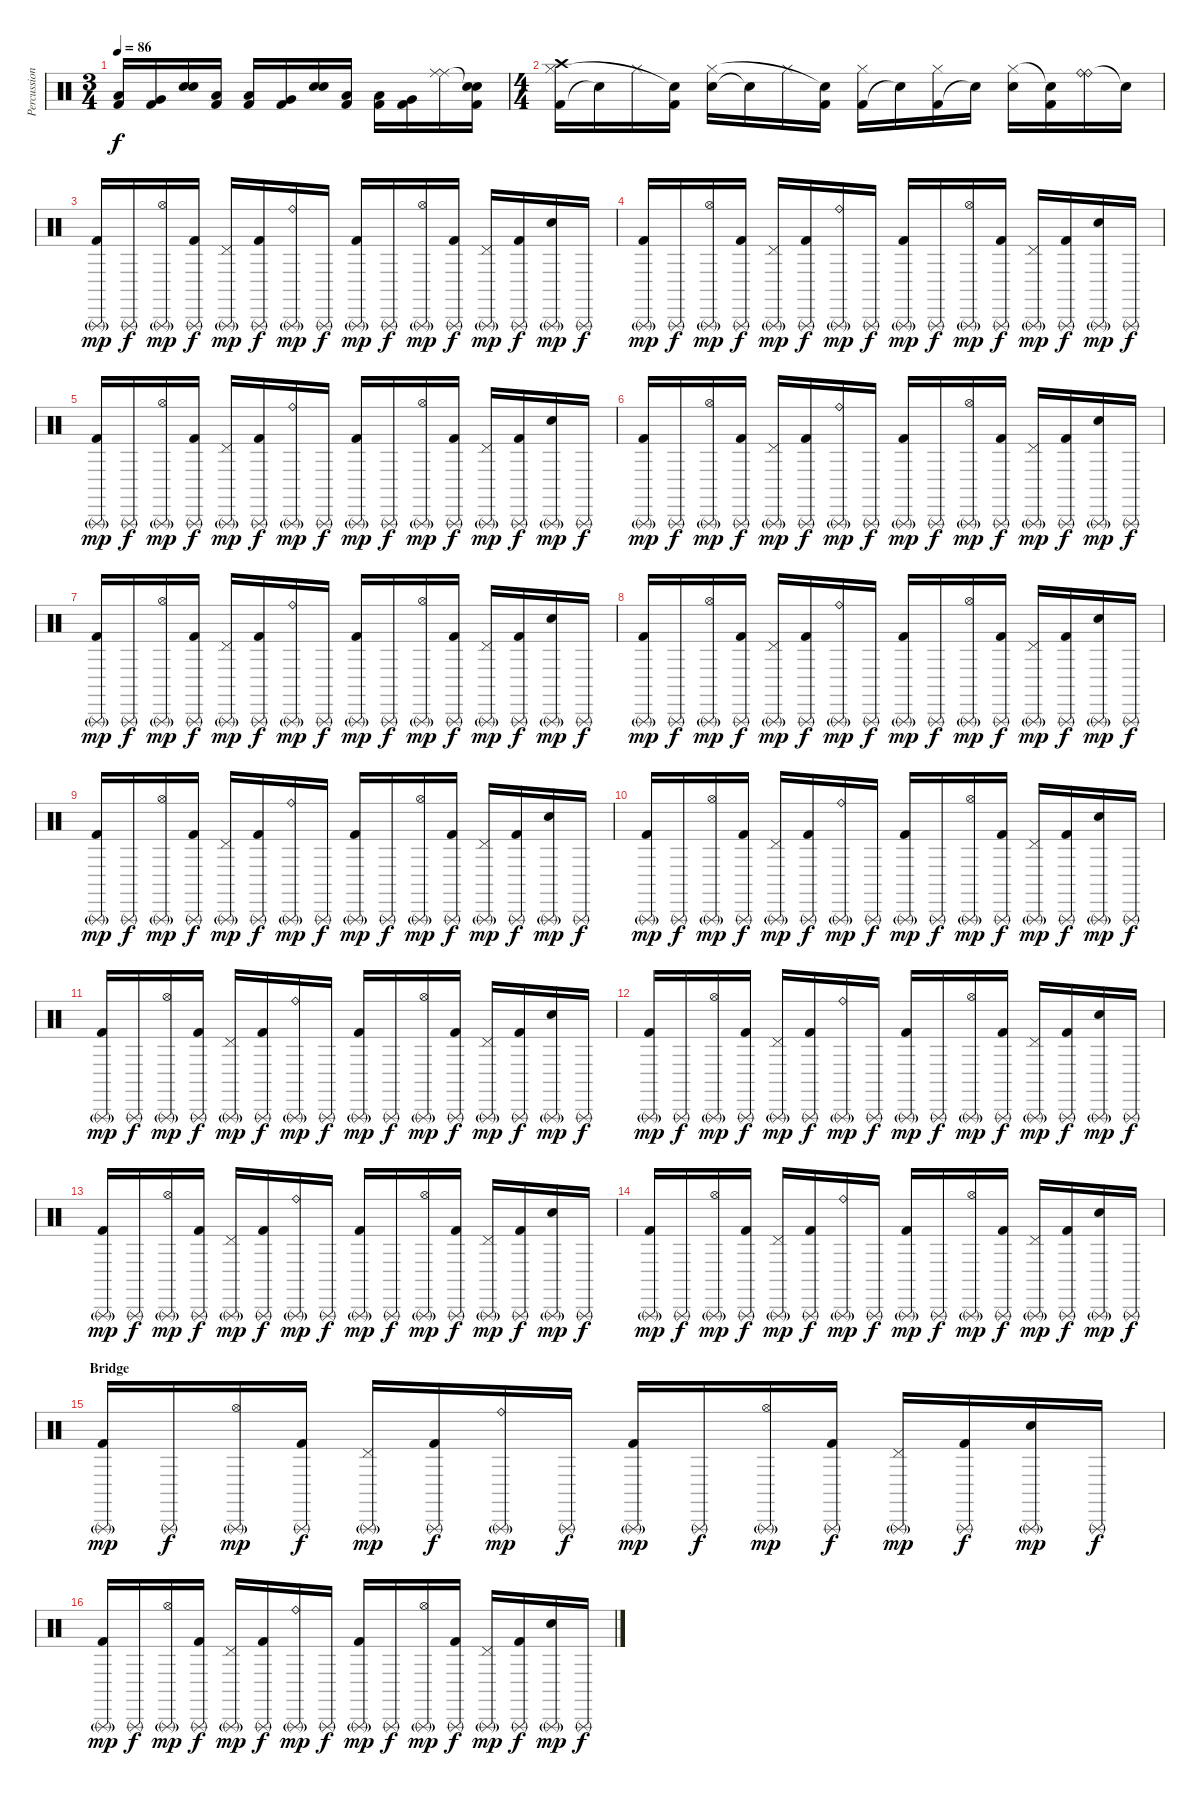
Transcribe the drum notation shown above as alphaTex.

\track ("Percussion" "Percussion") {instrument percussion}
\staff {score}
\articulation defaults
\ts (3 4)
\tempo 86
\clef neutral
\ks c
("Kick (hit) 2" "Low Tom (hit)").16{dy f} ("Kick (hit) 2" "Very Low Tom (hit)").16 ("Electric Snare (hit)" "Electric Snare (hit)").16 ("Kick (hit) 2" "Low Tom (hit)").16 ("Kick (hit) 2" "Low Tom (hit)").16 ("Kick (hit) 2" "Very Low Tom (hit)").16 ("Electric Snare (hit)" "Electric Snare (hit)").16 ("Kick (hit) 2" "Low Tom (hit)").16 ("Kick (hit) 2" "Low Tom (hit)").16 ("Kick (hit) 2" "Very Low Tom (hit)").16 ("Ride (middle)" "Ride (middle)").16 ("Kick (hit) 2" "Snare (hit)"{t} "Snare (hit)"{t}).16 |
\ts (4 4)
("Kick (hit) 2" "Hi-Hat (closed)" "Crash high (hit)").16 "Snare (hit)"{t}.16 "Hi-Hat (closed)".16 ("Kick (hit) 2" "Snare (hit)"{t}).16 ("Electric Snare (hit)" "Hi-Hat (closed)").16 "Snare (hit)"{t}.16 "Hi-Hat (closed)".16 ("Kick (hit) 2" "Snare (hit)"{t}).16 ("Kick (hit) 2" "Hi-Hat (closed)").16 "Snare (hit)"{t}.16 ("Kick (hit) 2" "Hi-Hat (closed)").16 "Snare (hit)"{t}.16 ("Electric Snare (hit)" "Hi-Hat (closed)").16 ("Kick (hit) 2" "Snare (hit)"{t}).16 ("Ride (bell)" "Ride (bell)").16 "Snare (hit)"{t}.16 |
("Kick (hit) 2" "Triangle (rnute)"{g}).16{dy mp} "Triangle (rnute)".16{dy f} ("Triangle (rnute)"{g} "Hi-Hat (open)").16{dy mp} ("Kick (hit) 2" "Triangle (rnute)").16{dy f} ("Triangle (rnute)"{g} "Pedal Hi-Hat (hit)").16{dy mp} ("Kick (hit) 2" "Triangle (rnute)").16{dy f} ("Ride (bell)" "Triangle (rnute)"{g}).16{dy mp} "Triangle (rnute)".16{dy f} ("Kick (hit) 2" "Triangle (rnute)"{g}).16{dy mp} "Triangle (rnute)".16{dy f} ("Triangle (rnute)"{g} "Hi-Hat (open)").16{dy mp} ("Kick (hit) 2" "Triangle (rnute)").16{dy f} ("Triangle (rnute)"{g} "Pedal Hi-Hat (hit)").16{dy mp} ("Kick (hit) 2" "Triangle (rnute)").16{dy f} ("Electric Snare (hit)" "Triangle (rnute)"{g}).16{dy mp} "Triangle (rnute)".16{dy f} |
("Kick (hit) 2" "Triangle (rnute)"{g}).16{dy mp} "Triangle (rnute)".16{dy f} ("Triangle (rnute)"{g} "Hi-Hat (open)").16{dy mp} ("Kick (hit) 2" "Triangle (rnute)").16{dy f} ("Triangle (rnute)"{g} "Pedal Hi-Hat (hit)").16{dy mp} ("Kick (hit) 2" "Triangle (rnute)").16{dy f} ("Ride (bell)" "Triangle (rnute)"{g}).16{dy mp} "Triangle (rnute)".16{dy f} ("Kick (hit) 2" "Triangle (rnute)"{g}).16{dy mp} "Triangle (rnute)".16{dy f} ("Triangle (rnute)"{g} "Hi-Hat (open)").16{dy mp} ("Kick (hit) 2" "Triangle (rnute)").16{dy f} ("Triangle (rnute)"{g} "Pedal Hi-Hat (hit)").16{dy mp} ("Kick (hit) 2" "Triangle (rnute)").16{dy f} ("Electric Snare (hit)" "Triangle (rnute)"{g}).16{dy mp} "Triangle (rnute)".16{dy f} |
("Kick (hit) 2" "Triangle (rnute)"{g}).16{dy mp} "Triangle (rnute)".16{dy f} ("Triangle (rnute)"{g} "Hi-Hat (open)").16{dy mp} ("Kick (hit) 2" "Triangle (rnute)").16{dy f} ("Triangle (rnute)"{g} "Pedal Hi-Hat (hit)").16{dy mp} ("Kick (hit) 2" "Triangle (rnute)").16{dy f} ("Ride (bell)" "Triangle (rnute)"{g}).16{dy mp} "Triangle (rnute)".16{dy f} ("Kick (hit) 2" "Triangle (rnute)"{g}).16{dy mp} "Triangle (rnute)".16{dy f} ("Triangle (rnute)"{g} "Hi-Hat (open)").16{dy mp} ("Kick (hit) 2" "Triangle (rnute)").16{dy f} ("Triangle (rnute)"{g} "Pedal Hi-Hat (hit)").16{dy mp} ("Kick (hit) 2" "Triangle (rnute)").16{dy f} ("Electric Snare (hit)" "Triangle (rnute)"{g}).16{dy mp} "Triangle (rnute)".16{dy f} |
("Kick (hit) 2" "Triangle (rnute)"{g}).16{dy mp} "Triangle (rnute)".16{dy f} ("Triangle (rnute)"{g} "Hi-Hat (open)").16{dy mp} ("Kick (hit) 2" "Triangle (rnute)").16{dy f} ("Triangle (rnute)"{g} "Pedal Hi-Hat (hit)").16{dy mp} ("Kick (hit) 2" "Triangle (rnute)").16{dy f} ("Ride (bell)" "Triangle (rnute)"{g}).16{dy mp} "Triangle (rnute)".16{dy f} ("Kick (hit) 2" "Triangle (rnute)"{g}).16{dy mp} "Triangle (rnute)".16{dy f} ("Triangle (rnute)"{g} "Hi-Hat (open)").16{dy mp} ("Kick (hit) 2" "Triangle (rnute)").16{dy f} ("Triangle (rnute)"{g} "Pedal Hi-Hat (hit)").16{dy mp} ("Kick (hit) 2" "Triangle (rnute)").16{dy f} ("Electric Snare (hit)" "Triangle (rnute)"{g}).16{dy mp} "Triangle (rnute)".16{dy f} |
("Kick (hit) 2" "Triangle (rnute)"{g}).16{dy mp} "Triangle (rnute)".16{dy f} ("Triangle (rnute)"{g} "Hi-Hat (open)").16{dy mp} ("Kick (hit) 2" "Triangle (rnute)").16{dy f} ("Triangle (rnute)"{g} "Pedal Hi-Hat (hit)").16{dy mp} ("Kick (hit) 2" "Triangle (rnute)").16{dy f} ("Ride (bell)" "Triangle (rnute)"{g}).16{dy mp} "Triangle (rnute)".16{dy f} ("Kick (hit) 2" "Triangle (rnute)"{g}).16{dy mp} "Triangle (rnute)".16{dy f} ("Triangle (rnute)"{g} "Hi-Hat (open)").16{dy mp} ("Kick (hit) 2" "Triangle (rnute)").16{dy f} ("Triangle (rnute)"{g} "Pedal Hi-Hat (hit)").16{dy mp} ("Kick (hit) 2" "Triangle (rnute)").16{dy f} ("Electric Snare (hit)" "Triangle (rnute)"{g}).16{dy mp} "Triangle (rnute)".16{dy f} |
("Kick (hit) 2" "Triangle (rnute)"{g}).16{dy mp} "Triangle (rnute)".16{dy f} ("Triangle (rnute)"{g} "Hi-Hat (open)").16{dy mp} ("Kick (hit) 2" "Triangle (rnute)").16{dy f} ("Triangle (rnute)"{g} "Pedal Hi-Hat (hit)").16{dy mp} ("Kick (hit) 2" "Triangle (rnute)").16{dy f} ("Ride (bell)" "Triangle (rnute)"{g}).16{dy mp} "Triangle (rnute)".16{dy f} ("Kick (hit) 2" "Triangle (rnute)"{g}).16{dy mp} "Triangle (rnute)".16{dy f} ("Triangle (rnute)"{g} "Hi-Hat (open)").16{dy mp} ("Kick (hit) 2" "Triangle (rnute)").16{dy f} ("Triangle (rnute)"{g} "Pedal Hi-Hat (hit)").16{dy mp} ("Kick (hit) 2" "Triangle (rnute)").16{dy f} ("Electric Snare (hit)" "Triangle (rnute)"{g}).16{dy mp} "Triangle (rnute)".16{dy f} |
("Kick (hit) 2" "Triangle (rnute)"{g}).16{dy mp} "Triangle (rnute)".16{dy f} ("Triangle (rnute)"{g} "Hi-Hat (open)").16{dy mp} ("Kick (hit) 2" "Triangle (rnute)").16{dy f} ("Triangle (rnute)"{g} "Pedal Hi-Hat (hit)").16{dy mp} ("Kick (hit) 2" "Triangle (rnute)").16{dy f} ("Ride (bell)" "Triangle (rnute)"{g}).16{dy mp} "Triangle (rnute)".16{dy f} ("Kick (hit) 2" "Triangle (rnute)"{g}).16{dy mp} "Triangle (rnute)".16{dy f} ("Triangle (rnute)"{g} "Hi-Hat (open)").16{dy mp} ("Kick (hit) 2" "Triangle (rnute)").16{dy f} ("Triangle (rnute)"{g} "Pedal Hi-Hat (hit)").16{dy mp} ("Kick (hit) 2" "Triangle (rnute)").16{dy f} ("Electric Snare (hit)" "Triangle (rnute)"{g}).16{dy mp} "Triangle (rnute)".16{dy f} |
("Kick (hit) 2" "Triangle (rnute)"{g}).16{dy mp} "Triangle (rnute)".16{dy f} ("Triangle (rnute)"{g} "Hi-Hat (open)").16{dy mp} ("Kick (hit) 2" "Triangle (rnute)").16{dy f} ("Triangle (rnute)"{g} "Pedal Hi-Hat (hit)").16{dy mp} ("Kick (hit) 2" "Triangle (rnute)").16{dy f} ("Ride (bell)" "Triangle (rnute)"{g}).16{dy mp} "Triangle (rnute)".16{dy f} ("Kick (hit) 2" "Triangle (rnute)"{g}).16{dy mp} "Triangle (rnute)".16{dy f} ("Triangle (rnute)"{g} "Hi-Hat (open)").16{dy mp} ("Kick (hit) 2" "Triangle (rnute)").16{dy f} ("Triangle (rnute)"{g} "Pedal Hi-Hat (hit)").16{dy mp} ("Kick (hit) 2" "Triangle (rnute)").16{dy f} ("Electric Snare (hit)" "Triangle (rnute)"{g}).16{dy mp} "Triangle (rnute)".16{dy f} |
("Kick (hit) 2" "Triangle (rnute)"{g}).16{dy mp} "Triangle (rnute)".16{dy f} ("Triangle (rnute)"{g} "Hi-Hat (open)").16{dy mp} ("Kick (hit) 2" "Triangle (rnute)").16{dy f} ("Triangle (rnute)"{g} "Pedal Hi-Hat (hit)").16{dy mp} ("Kick (hit) 2" "Triangle (rnute)").16{dy f} ("Ride (bell)" "Triangle (rnute)"{g}).16{dy mp} "Triangle (rnute)".16{dy f} ("Kick (hit) 2" "Triangle (rnute)"{g}).16{dy mp} "Triangle (rnute)".16{dy f} ("Triangle (rnute)"{g} "Hi-Hat (open)").16{dy mp} ("Kick (hit) 2" "Triangle (rnute)").16{dy f} ("Triangle (rnute)"{g} "Pedal Hi-Hat (hit)").16{dy mp} ("Kick (hit) 2" "Triangle (rnute)").16{dy f} ("Electric Snare (hit)" "Triangle (rnute)"{g}).16{dy mp} "Triangle (rnute)".16{dy f} |
("Kick (hit) 2" "Triangle (rnute)"{g}).16{dy mp} "Triangle (rnute)".16{dy f} ("Triangle (rnute)"{g} "Hi-Hat (open)").16{dy mp} ("Kick (hit) 2" "Triangle (rnute)").16{dy f} ("Triangle (rnute)"{g} "Pedal Hi-Hat (hit)").16{dy mp} ("Kick (hit) 2" "Triangle (rnute)").16{dy f} ("Ride (bell)" "Triangle (rnute)"{g}).16{dy mp} "Triangle (rnute)".16{dy f} ("Kick (hit) 2" "Triangle (rnute)"{g}).16{dy mp} "Triangle (rnute)".16{dy f} ("Triangle (rnute)"{g} "Hi-Hat (open)").16{dy mp} ("Kick (hit) 2" "Triangle (rnute)").16{dy f} ("Triangle (rnute)"{g} "Pedal Hi-Hat (hit)").16{dy mp} ("Kick (hit) 2" "Triangle (rnute)").16{dy f} ("Electric Snare (hit)" "Triangle (rnute)"{g}).16{dy mp} "Triangle (rnute)".16{dy f} |
("Kick (hit) 2" "Triangle (rnute)"{g}).16{dy mp} "Triangle (rnute)".16{dy f} ("Triangle (rnute)"{g} "Hi-Hat (open)").16{dy mp} ("Kick (hit) 2" "Triangle (rnute)").16{dy f} ("Triangle (rnute)"{g} "Pedal Hi-Hat (hit)").16{dy mp} ("Kick (hit) 2" "Triangle (rnute)").16{dy f} ("Ride (bell)" "Triangle (rnute)"{g}).16{dy mp} "Triangle (rnute)".16{dy f} ("Kick (hit) 2" "Triangle (rnute)"{g}).16{dy mp} "Triangle (rnute)".16{dy f} ("Triangle (rnute)"{g} "Hi-Hat (open)").16{dy mp} ("Kick (hit) 2" "Triangle (rnute)").16{dy f} ("Triangle (rnute)"{g} "Pedal Hi-Hat (hit)").16{dy mp} ("Kick (hit) 2" "Triangle (rnute)").16{dy f} ("Electric Snare (hit)" "Triangle (rnute)"{g}).16{dy mp} "Triangle (rnute)".16{dy f} |
("Kick (hit) 2" "Triangle (rnute)"{g}).16{dy mp} "Triangle (rnute)".16{dy f} ("Triangle (rnute)"{g} "Hi-Hat (open)").16{dy mp} ("Kick (hit) 2" "Triangle (rnute)").16{dy f} ("Triangle (rnute)"{g} "Pedal Hi-Hat (hit)").16{dy mp} ("Kick (hit) 2" "Triangle (rnute)").16{dy f} ("Ride (bell)" "Triangle (rnute)"{g}).16{dy mp} "Triangle (rnute)".16{dy f} ("Kick (hit) 2" "Triangle (rnute)"{g}).16{dy mp} "Triangle (rnute)".16{dy f} ("Triangle (rnute)"{g} "Hi-Hat (open)").16{dy mp} ("Kick (hit) 2" "Triangle (rnute)").16{dy f} ("Triangle (rnute)"{g} "Pedal Hi-Hat (hit)").16{dy mp} ("Kick (hit) 2" "Triangle (rnute)").16{dy f} ("Electric Snare (hit)" "Triangle (rnute)"{g}).16{dy mp} "Triangle (rnute)".16{dy f} |
\section ("" "Bridge")
("Kick (hit) 2" "Triangle (rnute)"{g}).16{dy mp} "Triangle (rnute)".16{dy f} ("Triangle (rnute)"{g} "Hi-Hat (open)").16{dy mp} ("Kick (hit) 2" "Triangle (rnute)").16{dy f} ("Triangle (rnute)"{g} "Pedal Hi-Hat (hit)").16{dy mp} ("Kick (hit) 2" "Triangle (rnute)").16{dy f} ("Ride (bell)" "Triangle (rnute)"{g}).16{dy mp} "Triangle (rnute)".16{dy f} ("Kick (hit) 2" "Triangle (rnute)"{g}).16{dy mp} "Triangle (rnute)".16{dy f} ("Triangle (rnute)"{g} "Hi-Hat (open)").16{dy mp} ("Kick (hit) 2" "Triangle (rnute)").16{dy f} ("Triangle (rnute)"{g} "Pedal Hi-Hat (hit)").16{dy mp} ("Kick (hit) 2" "Triangle (rnute)").16{dy f} ("Electric Snare (hit)" "Triangle (rnute)"{g}).16{dy mp} "Triangle (rnute)".16{dy f} |
("Kick (hit) 2" "Triangle (rnute)"{g}).16{dy mp} "Triangle (rnute)".16{dy f} ("Triangle (rnute)"{g} "Hi-Hat (open)").16{dy mp} ("Kick (hit) 2" "Triangle (rnute)").16{dy f} ("Triangle (rnute)"{g} "Pedal Hi-Hat (hit)").16{dy mp} ("Kick (hit) 2" "Triangle (rnute)").16{dy f} ("Ride (bell)" "Triangle (rnute)"{g}).16{dy mp} "Triangle (rnute)".16{dy f} ("Kick (hit) 2" "Triangle (rnute)"{g}).16{dy mp} "Triangle (rnute)".16{dy f} ("Triangle (rnute)"{g} "Hi-Hat (open)").16{dy mp} ("Kick (hit) 2" "Triangle (rnute)").16{dy f} ("Triangle (rnute)"{g} "Pedal Hi-Hat (hit)").16{dy mp} ("Kick (hit) 2" "Triangle (rnute)").16{dy f} ("Electric Snare (hit)" "Triangle (rnute)"{g}).16{dy mp} "Triangle (rnute)".16{dy f}
